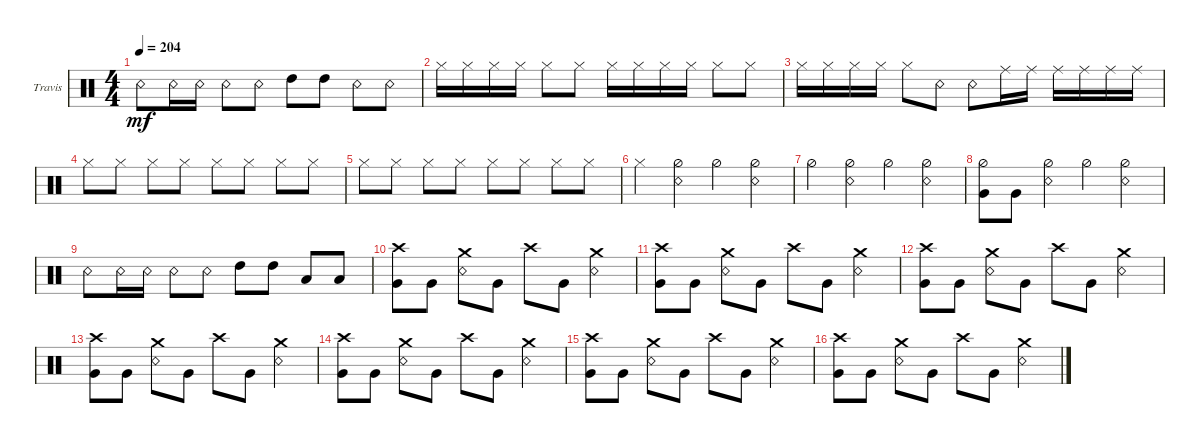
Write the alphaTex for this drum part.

\defaultSystemsLayout 4
\bracketExtendMode groupsimilarinstruments
\firstSystemTrackNameOrientation horizontal
\otherSystemsTrackNameOrientation horizontal
\track ("Travis Barker" "Travis") {instrument percussion}
\staff {score}
\articulation defaults
\ts (4 4)
\tempo 204
\clef neutral
\ks c "Snare (rim shot)".8{dy mf} "Snare (rim shot)".16 "Snare (rim shot)".16 "Snare (rim shot)".8 "Snare (rim shot)".8 "High Tom (hit)".8 "High Tom (hit)".8 "Snare (rim shot)".8 "Snare (rim shot)".8
|
"Hi-Hat (closed)".16 "Hi-Hat (closed)".16 "Hi-Hat (closed)".16 "Hi-Hat (closed)".16 "Hi-Hat (closed)".8 "Hi-Hat (closed)".8 "Hi-Hat (closed)".16 "Hi-Hat (closed)".16 "Hi-Hat (closed)".16 "Hi-Hat (closed)".16 "Hi-Hat (closed)".8 "Hi-Hat (closed)".8 |
"Hi-Hat (closed)".16 "Hi-Hat (closed)".16 "Hi-Hat (closed)".16 "Hi-Hat (closed)".16 "Hi-Hat (closed)".8 "Snare (rim shot)".8 "Snare (rim shot)".8 "Ride (middle)".16 "Ride (middle)".16 "Ride (middle)".16 "Ride (middle)".16 "Ride (middle)".16 "Ride (middle)".16 |
"Hi-Hat (closed)".8 "Hi-Hat (closed)".8 "Hi-Hat (closed)".8 "Hi-Hat (closed)".8 "Hi-Hat (closed)".8 "Hi-Hat (closed)".8 "Hi-Hat (closed)".8 "Hi-Hat (closed)".8 |
"Hi-Hat (closed)".8 "Hi-Hat (closed)".8 "Hi-Hat (closed)".8 "Hi-Hat (closed)".8 "Hi-Hat (closed)".8 "Hi-Hat (closed)".8 "Hi-Hat (closed)".8 "Hi-Hat (closed)".8 |
"Hi-Hat (closed)".4 ("Hi-Hat (half)" "Snare (rim shot)").4 "Hi-Hat (half)".4 ("Hi-Hat (half)" "Snare (rim shot)").4 |
"Hi-Hat (half)".4 ("Hi-Hat (half)" "Snare (rim shot)").4 "Hi-Hat (half)".4 ("Hi-Hat (half)" "Snare (rim shot)").4 |
("Hi-Hat (half)" "Very Low Tom (hit)").8 "Very Low Tom (hit)".8 ("Hi-Hat (half)" "Snare (rim shot)").4 "Hi-Hat (half)".4 ("Hi-Hat (half)" "Snare (rim shot)").4 |
"Snare (rim shot)".8 "Snare (rim shot)".16 "Snare (rim shot)".16 "Snare (rim shot)".8 "Snare (rim shot)".8 "High Tom (hit)".8 "High Tom (hit)".8 "Low Tom (hit)".8 "Low Tom (hit)".8 |
("Very Low Tom (hit)" "Crash high (hit)").8 "Very Low Tom (hit)".8 ("Snare (rim shot)" "Crash medium (hit)").8 "Very Low Tom (hit)".8 "Crash high (hit)".8 "Very Low Tom (hit)".8 ("Snare (rim shot)" "Crash medium (hit)").4 |
("Very Low Tom (hit)" "Crash high (hit)").8 "Very Low Tom (hit)".8 ("Snare (rim shot)" "Crash medium (hit)").8 "Very Low Tom (hit)".8 "Crash high (hit)".8 "Very Low Tom (hit)".8 ("Snare (rim shot)" "Crash medium (hit)").4 |
("Very Low Tom (hit)" "Crash high (hit)").8 "Very Low Tom (hit)".8 ("Snare (rim shot)" "Crash medium (hit)").8 "Very Low Tom (hit)".8 "Crash high (hit)".8 "Very Low Tom (hit)".8 ("Snare (rim shot)" "Crash medium (hit)").4 |
("Very Low Tom (hit)" "Crash high (hit)").8 "Very Low Tom (hit)".8 ("Snare (rim shot)" "Crash medium (hit)").8 "Very Low Tom (hit)".8 "Crash high (hit)".8 "Very Low Tom (hit)".8 ("Snare (rim shot)" "Crash medium (hit)").4 |
("Very Low Tom (hit)" "Crash high (hit)").8 "Very Low Tom (hit)".8 ("Snare (rim shot)" "Crash medium (hit)").8 "Very Low Tom (hit)".8 "Crash high (hit)".8 "Very Low Tom (hit)".8 ("Snare (rim shot)" "Crash medium (hit)").4 |
("Very Low Tom (hit)" "Crash high (hit)").8 "Very Low Tom (hit)".8 ("Snare (rim shot)" "Crash medium (hit)").8 "Very Low Tom (hit)".8 "Crash high (hit)".8 "Very Low Tom (hit)".8 ("Snare (rim shot)" "Crash medium (hit)").4 |
("Very Low Tom (hit)" "Crash high (hit)").8 "Very Low Tom (hit)".8 ("Snare (rim shot)" "Crash medium (hit)").8 "Very Low Tom (hit)".8 "Crash high (hit)".8 "Very Low Tom (hit)".8 ("Snare (rim shot)" "Crash medium (hit)").4
